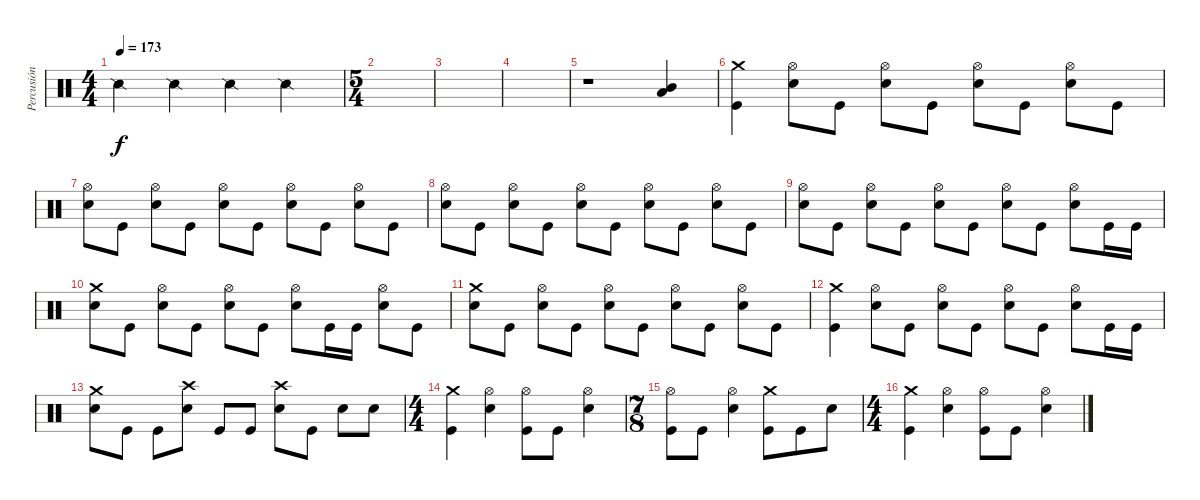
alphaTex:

\track ("Percusión" "Percusión") {instrument percussion}
\staff {score}
\articulation defaults
\ts (4 4)
\tempo 173
\clef neutral
\ks c "Snare (side stick) 2".4{dy f} "Snare (side stick) 2".4 "Snare (side stick) 2".4 "Snare (side stick) 2".4
|
\ts (5 4)
|
|
|
r.1 ("Mid Tom (hit)" "Low Tom (hit)").4 |
("Crash medium (hit)" "Kick (hit)").4 ("Hi-Hat (open)" "Electric Snare (hit)").8 "Kick (hit)".8 ("Hi-Hat (open)" "Electric Snare (hit)").8 "Kick (hit)".8 ("Hi-Hat (open)" "Electric Snare (hit)").8 "Kick (hit)".8 ("Hi-Hat (open)" "Electric Snare (hit)").8 "Kick (hit)".8 |
("Hi-Hat (open)" "Electric Snare (hit)").8 "Kick (hit)".8 ("Hi-Hat (open)" "Electric Snare (hit)").8 "Kick (hit)".8 ("Hi-Hat (open)" "Electric Snare (hit)").8 "Kick (hit)".8 ("Hi-Hat (open)" "Electric Snare (hit)").8 "Kick (hit)".8 ("Hi-Hat (open)" "Electric Snare (hit)").8 "Kick (hit)".8 |
("Hi-Hat (open)" "Electric Snare (hit)").8 "Kick (hit)".8 ("Hi-Hat (open)" "Electric Snare (hit)").8 "Kick (hit)".8 ("Hi-Hat (open)" "Electric Snare (hit)").8 "Kick (hit)".8 ("Hi-Hat (open)" "Electric Snare (hit)").8 "Kick (hit)".8 ("Hi-Hat (open)" "Electric Snare (hit)").8 "Kick (hit)".8 |
("Hi-Hat (open)" "Electric Snare (hit)").8 "Kick (hit)".8 ("Hi-Hat (open)" "Electric Snare (hit)").8 "Kick (hit)".8 ("Hi-Hat (open)" "Electric Snare (hit)").8 "Kick (hit)".8 ("Hi-Hat (open)" "Electric Snare (hit)").8 "Kick (hit)".8 ("Hi-Hat (open)" "Electric Snare (hit)").8 "Kick (hit)".16 "Kick (hit)".16 |
("Crash medium (hit)" "Electric Snare (hit)").8 "Kick (hit)".8 ("Hi-Hat (open)" "Electric Snare (hit)").8 "Kick (hit)".8 ("Hi-Hat (open)" "Electric Snare (hit)").8 "Kick (hit)".8 ("Hi-Hat (open)" "Electric Snare (hit)").8 "Kick (hit)".16 "Kick (hit)".16 ("Hi-Hat (open)" "Electric Snare (hit)").8 "Kick (hit)".8 |
("Crash medium (hit)" "Electric Snare (hit)").8 "Kick (hit)".8 ("Hi-Hat (open)" "Electric Snare (hit)").8 "Kick (hit)".8 ("Hi-Hat (open)" "Electric Snare (hit)").8 "Kick (hit)".8 ("Hi-Hat (open)" "Electric Snare (hit)").8 "Kick (hit)".8 ("Hi-Hat (open)" "Electric Snare (hit)").8 "Kick (hit)".8 |
("Crash medium (hit)" "Kick (hit)").4 ("Hi-Hat (open)" "Electric Snare (hit)").8 "Kick (hit)".8 ("Hi-Hat (open)" "Electric Snare (hit)").8 "Kick (hit)".8 ("Hi-Hat (open)" "Electric Snare (hit)").8 "Kick (hit)".8 ("Hi-Hat (open)" "Electric Snare (hit)").8 "Kick (hit)".16 "Kick (hit)".16 |
("Crash medium (hit)" "Electric Snare (hit)").8 "Kick (hit)".8 "Kick (hit)".8 ("Crash high (hit)" "Electric Snare (hit)").8 "Kick (hit)".8 "Kick (hit)".8 ("Crash high (hit)" "Electric Snare (hit)").8 "Kick (hit)".8 "Electric Snare (hit)".8 "Electric Snare (hit)".8 |
\ts (4 4)
("Crash medium (hit)" "Kick (hit)").4 ("Hi-Hat (open)" "Electric Snare (hit)").4 ("Hi-Hat (open)" "Kick (hit)").8 "Kick (hit)".8 ("Hi-Hat (open)" "Electric Snare (hit)").4 |
\ts (7 8)
("Hi-Hat (open)" "Kick (hit)").8 "Kick (hit)".8 ("Hi-Hat (open)" "Electric Snare (hit)").4 ("Crash medium (hit)" "Kick (hit)").8 "Kick (hit)".8 "Electric Snare (hit)".8 |
\ts (4 4)
("Crash medium (hit)" "Kick (hit)").4 ("Hi-Hat (open)" "Electric Snare (hit)").4 ("Hi-Hat (open)" "Kick (hit)").8 "Kick (hit)".8 ("Hi-Hat (open)" "Electric Snare (hit)").4
